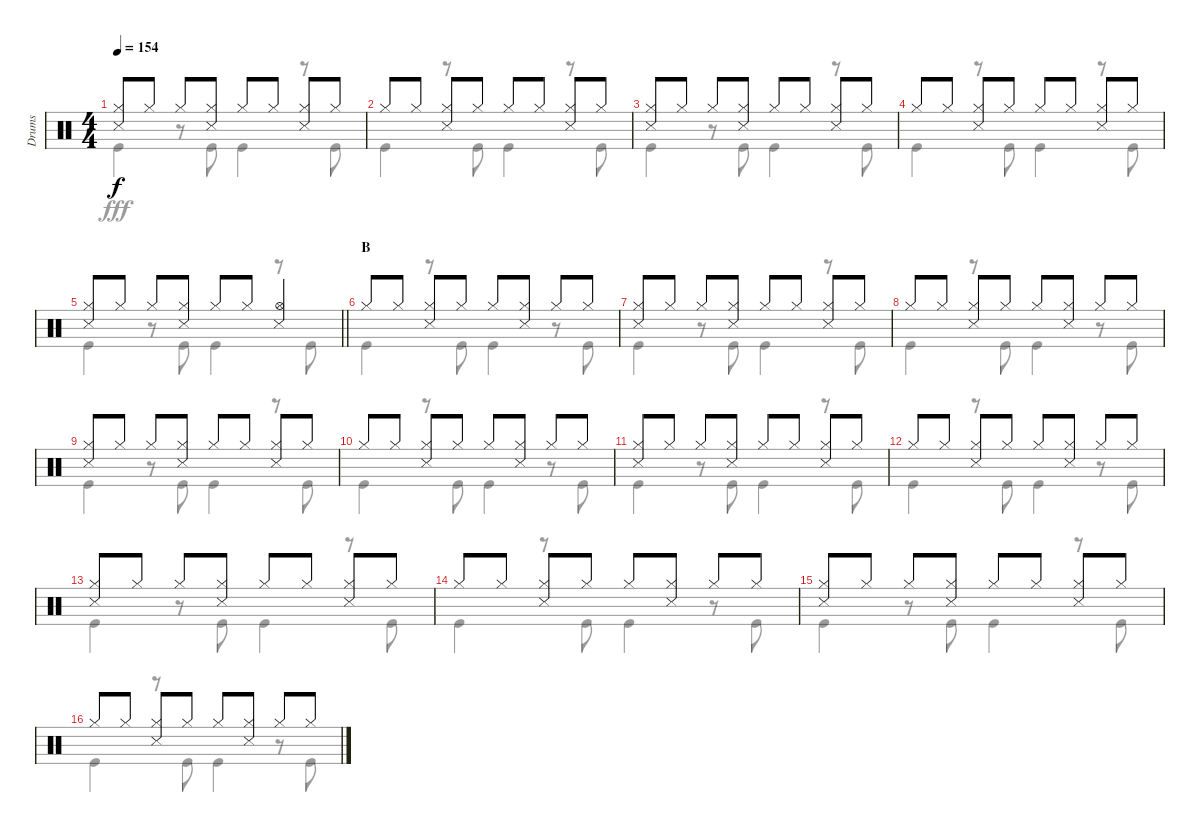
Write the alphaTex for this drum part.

\track ("Drums" "Drums") {instrument percussion}
\staff {score}
\articulation defaults
\voice
\ts (4 4)
\tempo 154
\clef neutral
\ks c
("Hi-Hat (closed)" "Snare (side stick) 3").8{dy f} "Hi-Hat (closed)".8 "Hi-Hat (closed)".8 ("Hi-Hat (closed)" "Snare (side stick) 3").8 "Hi-Hat (closed)".8 "Hi-Hat (closed)".8 ("Hi-Hat (closed)" "Snare (side stick) 3").8 "Hi-Hat (closed)".8 |
"Hi-Hat (closed)".8 "Hi-Hat (closed)".8 ("Hi-Hat (closed)" "Snare (side stick) 3").8 "Hi-Hat (closed)".8 "Hi-Hat (closed)".8 "Hi-Hat (closed)".8 ("Hi-Hat (closed)" "Snare (side stick) 3").8 "Hi-Hat (closed)".8 |
("Hi-Hat (closed)" "Snare (side stick) 3").8 "Hi-Hat (closed)".8 "Hi-Hat (closed)".8 ("Hi-Hat (closed)" "Snare (side stick) 3").8 "Hi-Hat (closed)".8 "Hi-Hat (closed)".8 ("Hi-Hat (closed)" "Snare (side stick) 3").8 "Hi-Hat (closed)".8 |
"Hi-Hat (closed)".8 "Hi-Hat (closed)".8 ("Hi-Hat (closed)" "Snare (side stick) 3").8 "Hi-Hat (closed)".8 "Hi-Hat (closed)".8 "Hi-Hat (closed)".8 ("Hi-Hat (closed)" "Snare (side stick) 3").8 "Hi-Hat (closed)".8 |
\barLineRight lightlight
("Hi-Hat (closed)" "Snare (side stick) 3").8 "Hi-Hat (closed)".8 "Hi-Hat (closed)".8 ("Hi-Hat (closed)" "Snare (side stick) 3").8 "Hi-Hat (closed)".8 "Hi-Hat (closed)".8 ("Hi-Hat (open)" "Snare (side stick) 3").4 |
\section ("" "B")
"Hi-Hat (closed)".8 "Hi-Hat (closed)".8 ("Hi-Hat (closed)" "Snare (side stick) 3").8 "Hi-Hat (closed)".8 "Hi-Hat (closed)".8 ("Hi-Hat (closed)" "Snare (side stick) 3").8 "Hi-Hat (closed)".8 "Hi-Hat (closed)".8 |
("Hi-Hat (closed)" "Snare (side stick) 3").8 "Hi-Hat (closed)".8 "Hi-Hat (closed)".8 ("Hi-Hat (closed)" "Snare (side stick) 3").8 "Hi-Hat (closed)".8 "Hi-Hat (closed)".8 ("Hi-Hat (closed)" "Snare (side stick) 3").8 "Hi-Hat (closed)".8 |
"Hi-Hat (closed)".8 "Hi-Hat (closed)".8 ("Hi-Hat (closed)" "Snare (side stick) 3").8 "Hi-Hat (closed)".8 "Hi-Hat (closed)".8 ("Hi-Hat (closed)" "Snare (side stick) 3").8 "Hi-Hat (closed)".8 "Hi-Hat (closed)".8 |
("Hi-Hat (closed)" "Snare (side stick) 3").8 "Hi-Hat (closed)".8 "Hi-Hat (closed)".8 ("Hi-Hat (closed)" "Snare (side stick) 3").8 "Hi-Hat (closed)".8 "Hi-Hat (closed)".8 ("Hi-Hat (closed)" "Snare (side stick) 3").8 "Hi-Hat (closed)".8 |
"Hi-Hat (closed)".8 "Hi-Hat (closed)".8 ("Hi-Hat (closed)" "Snare (side stick) 3").8 "Hi-Hat (closed)".8 "Hi-Hat (closed)".8 ("Hi-Hat (closed)" "Snare (side stick) 3").8 "Hi-Hat (closed)".8 "Hi-Hat (closed)".8 |
("Hi-Hat (closed)" "Snare (side stick) 3").8 "Hi-Hat (closed)".8 "Hi-Hat (closed)".8 ("Hi-Hat (closed)" "Snare (side stick) 3").8 "Hi-Hat (closed)".8 "Hi-Hat (closed)".8 ("Hi-Hat (closed)" "Snare (side stick) 3").8 "Hi-Hat (closed)".8 |
"Hi-Hat (closed)".8 "Hi-Hat (closed)".8 ("Hi-Hat (closed)" "Snare (side stick) 3").8 "Hi-Hat (closed)".8 "Hi-Hat (closed)".8 ("Hi-Hat (closed)" "Snare (side stick) 3").8 "Hi-Hat (closed)".8 "Hi-Hat (closed)".8 |
("Hi-Hat (closed)" "Snare (side stick) 3").8 "Hi-Hat (closed)".8 "Hi-Hat (closed)".8 ("Hi-Hat (closed)" "Snare (side stick) 3").8 "Hi-Hat (closed)".8 "Hi-Hat (closed)".8 ("Hi-Hat (closed)" "Snare (side stick) 3").8 "Hi-Hat (closed)".8 |
"Hi-Hat (closed)".8 "Hi-Hat (closed)".8 ("Hi-Hat (closed)" "Snare (side stick) 3").8 "Hi-Hat (closed)".8 "Hi-Hat (closed)".8 ("Hi-Hat (closed)" "Snare (side stick) 3").8 "Hi-Hat (closed)".8 "Hi-Hat (closed)".8 |
("Hi-Hat (closed)" "Snare (side stick) 3").8 "Hi-Hat (closed)".8 "Hi-Hat (closed)".8 ("Hi-Hat (closed)" "Snare (side stick) 3").8 "Hi-Hat (closed)".8 "Hi-Hat (closed)".8 ("Hi-Hat (closed)" "Snare (side stick) 3").8 "Hi-Hat (closed)".8 |
"Hi-Hat (closed)".8 "Hi-Hat (closed)".8 ("Hi-Hat (closed)" "Snare (side stick) 3").8 "Hi-Hat (closed)".8 "Hi-Hat (closed)".8 ("Hi-Hat (closed)" "Snare (side stick) 3").8 "Hi-Hat (closed)".8 "Hi-Hat (closed)".8
\voice
\clef neutral
\ottava regular
\simile none
\ks c "Kick (hit)".4{dy fff}
r.8 "Kick (hit)".8 "Kick (hit)".4 r.8 "Kick (hit)".8 |
"Kick (hit)".4 r.8 "Kick (hit)".8 "Kick (hit)".4 r.8 "Kick (hit)".8 |
"Kick (hit)".4 r.8 "Kick (hit)".8 "Kick (hit)".4 r.8 "Kick (hit)".8 |
"Kick (hit)".4 r.8 "Kick (hit)".8 "Kick (hit)".4 r.8 "Kick (hit)".8 |
\barLineRight lightlight "Kick (hit)".4
r.8 "Kick (hit)".8 "Kick (hit)".4 r.8 "Kick (hit)".8 |
"Kick (hit)".4 r.8 "Kick (hit)".8 "Kick (hit)".4 r.8 "Kick (hit)".8 |
"Kick (hit)".4 r.8 "Kick (hit)".8 "Kick (hit)".4 r.8 "Kick (hit)".8 |
"Kick (hit)".4 r.8 "Kick (hit)".8 "Kick (hit)".4 r.8 "Kick (hit)".8 |
"Kick (hit)".4 r.8 "Kick (hit)".8 "Kick (hit)".4 r.8 "Kick (hit)".8 |
"Kick (hit)".4 r.8 "Kick (hit)".8 "Kick (hit)".4 r.8 "Kick (hit)".8 |
"Kick (hit)".4 r.8 "Kick (hit)".8 "Kick (hit)".4 r.8 "Kick (hit)".8 |
"Kick (hit)".4 r.8 "Kick (hit)".8 "Kick (hit)".4 r.8 "Kick (hit)".8 |
"Kick (hit)".4 r.8 "Kick (hit)".8 "Kick (hit)".4 r.8 "Kick (hit)".8 |
"Kick (hit)".4 r.8 "Kick (hit)".8 "Kick (hit)".4 r.8 "Kick (hit)".8 |
"Kick (hit)".4 r.8 "Kick (hit)".8 "Kick (hit)".4 r.8 "Kick (hit)".8 |
"Kick (hit)".4 r.8 "Kick (hit)".8 "Kick (hit)".4 r.8 "Kick (hit)".8
